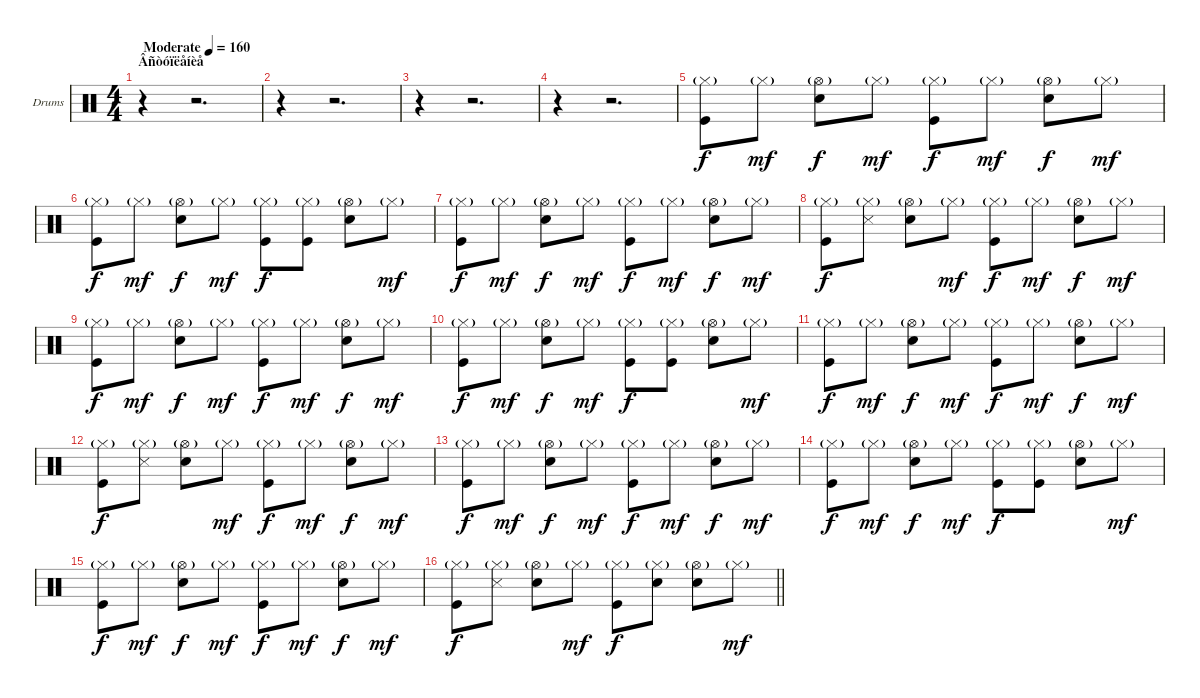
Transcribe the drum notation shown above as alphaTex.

\bracketExtendMode groupsimilarinstruments
\firstSystemTrackNameOrientation horizontal
\otherSystemsTrackNameOrientation horizontal
\track ("Гурьянов" "Drums") {instrument percussion}
\staff {score}
\articulation defaults
\ts (4 4)
\beaming (8 2 2 2 2)
\section ("" "Âñòóïëåíèå")
\tempo (160 "Moderate")
\clef neutral
\scale
0.474178
\ks c
r.4{dy f} r.2{d} |
\scale
0.262911 r.4 r.2{d} |
\scale
0.262911 r.4 r.2{d} |
\scale
0.333333 r.4 r.2{d} |
\scale
0.333333 ("Hi-Hat (closed)"{g} "Kick (hit)").8 "Hi-Hat (closed)"{g}.8{dy mf} ("Hi-Hat (open)"{g} "Snare (hit) 2").8{dy f} "Hi-Hat (closed)"{g}.8{dy mf} ("Hi-Hat (closed)"{g} "Kick (hit)").8{dy f} "Hi-Hat (closed)"{g}.8{dy mf} ("Hi-Hat (open)"{g} "Snare (hit) 2").8{dy f} "Hi-Hat (closed)"{g}.8{dy mf} |
\scale
0.333333 ("Hi-Hat (closed)"{g} "Kick (hit)").8{dy f} "Hi-Hat (closed)"{g}.8{dy mf} ("Hi-Hat (open)"{g} "Snare (hit) 2").8{dy f} "Hi-Hat (closed)"{g}.8{dy mf} ("Hi-Hat (closed)"{g} "Kick (hit)").8{dy f} ("Hi-Hat (closed)"{g} "Kick (hit)").8 ("Hi-Hat (open)"{g} "Snare (hit) 2").8 "Hi-Hat (closed)"{g}.8{dy mf} |
\scale
0.333333 ("Hi-Hat (closed)"{g} "Kick (hit)").8{dy f} "Hi-Hat (closed)"{g}.8{dy mf} ("Hi-Hat (open)"{g} "Snare (hit) 2").8{dy f} "Hi-Hat (closed)"{g}.8{dy mf} ("Hi-Hat (closed)"{g} "Kick (hit)").8{dy f} "Hi-Hat (closed)"{g}.8{dy mf} ("Hi-Hat (open)"{g} "Snare (hit) 2").8{dy f} "Hi-Hat (closed)"{g}.8{dy mf} |
\scale
0.333333 ("Hi-Hat (closed)"{g} "Kick (hit)").8{dy f} ("Hi-Hat (closed)"{g} "Snare (side stick) 3").8 ("Hi-Hat (open)"{g} "Snare (hit) 2").8 "Hi-Hat (closed)"{g}.8{dy mf} ("Hi-Hat (closed)"{g} "Kick (hit)").8{dy f} "Hi-Hat (closed)"{g}.8{dy mf} ("Hi-Hat (open)"{g} "Snare (hit) 2").8{dy f} "Hi-Hat (closed)"{g}.8{dy mf} |
\scale
0.333333 ("Hi-Hat (closed)"{g} "Kick (hit)").8{dy f} "Hi-Hat (closed)"{g}.8{dy mf} ("Hi-Hat (open)"{g} "Snare (hit) 2").8{dy f} "Hi-Hat (closed)"{g}.8{dy mf} ("Hi-Hat (closed)"{g} "Kick (hit)").8{dy f} "Hi-Hat (closed)"{g}.8{dy mf} ("Hi-Hat (open)"{g} "Snare (hit) 2").8{dy f} "Hi-Hat (closed)"{g}.8{dy mf} |
\scale
0.333333 ("Hi-Hat (closed)"{g} "Kick (hit)").8{dy f} "Hi-Hat (closed)"{g}.8{dy mf} ("Hi-Hat (open)"{g} "Snare (hit) 2").8{dy f} "Hi-Hat (closed)"{g}.8{dy mf} ("Hi-Hat (closed)"{g} "Kick (hit)").8{dy f} ("Hi-Hat (closed)"{g} "Kick (hit)").8 ("Hi-Hat (open)"{g} "Snare (hit) 2").8 "Hi-Hat (closed)"{g}.8{dy mf} |
\scale
0.333333 ("Hi-Hat (closed)"{g} "Kick (hit)").8{dy f} "Hi-Hat (closed)"{g}.8{dy mf} ("Hi-Hat (open)"{g} "Snare (hit) 2").8{dy f} "Hi-Hat (closed)"{g}.8{dy mf} ("Hi-Hat (closed)"{g} "Kick (hit)").8{dy f} "Hi-Hat (closed)"{g}.8{dy mf} ("Hi-Hat (open)"{g} "Snare (hit) 2").8{dy f} "Hi-Hat (closed)"{g}.8{dy mf} |
\scale
0.333333 ("Hi-Hat (closed)"{g} "Kick (hit)").8{dy f} ("Hi-Hat (closed)"{g} "Snare (side stick) 3").8 ("Hi-Hat (open)"{g} "Snare (hit) 2").8 "Hi-Hat (closed)"{g}.8{dy mf} ("Hi-Hat (closed)"{g} "Kick (hit)").8{dy f} "Hi-Hat (closed)"{g}.8{dy mf} ("Hi-Hat (open)"{g} "Snare (hit) 2").8{dy f} "Hi-Hat (closed)"{g}.8{dy mf} |
\scale
0.333333 ("Hi-Hat (closed)"{g} "Kick (hit)").8{dy f} "Hi-Hat (closed)"{g}.8{dy mf} ("Hi-Hat (open)"{g} "Snare (hit) 2").8{dy f} "Hi-Hat (closed)"{g}.8{dy mf} ("Hi-Hat (closed)"{g} "Kick (hit)").8{dy f} "Hi-Hat (closed)"{g}.8{dy mf} ("Hi-Hat (open)"{g} "Snare (hit) 2").8{dy f} "Hi-Hat (closed)"{g}.8{dy mf} |
\scale
0.333333 ("Hi-Hat (closed)"{g} "Kick (hit)").8{dy f} "Hi-Hat (closed)"{g}.8{dy mf} ("Hi-Hat (open)"{g} "Snare (hit) 2").8{dy f} "Hi-Hat (closed)"{g}.8{dy mf} ("Hi-Hat (closed)"{g} "Kick (hit)").8{dy f} ("Hi-Hat (closed)"{g} "Kick (hit)").8 ("Hi-Hat (open)"{g} "Snare (hit) 2").8 "Hi-Hat (closed)"{g}.8{dy mf} |
\scale
0.333333 ("Hi-Hat (closed)"{g} "Kick (hit)").8{dy f} "Hi-Hat (closed)"{g}.8{dy mf} ("Hi-Hat (open)"{g} "Snare (hit) 2").8{dy f} "Hi-Hat (closed)"{g}.8{dy mf} ("Hi-Hat (closed)"{g} "Kick (hit)").8{dy f} "Hi-Hat (closed)"{g}.8{dy mf} ("Hi-Hat (open)"{g} "Snare (hit) 2").8{dy f} "Hi-Hat (closed)"{g}.8{dy mf} |
\scale
0.333333
\barLineRight lightlight
("Hi-Hat (closed)"{g} "Kick (hit)").8{dy f} ("Hi-Hat (closed)"{g} "Snare (side stick) 3").8 ("Hi-Hat (open)"{g} "Snare (hit) 2").8 "Hi-Hat (closed)"{g}.8{dy mf} ("Hi-Hat (closed)"{g} "Kick (hit)").8{dy f} ("Hi-Hat (closed)"{g} "Snare (hit) 2").8 ("Hi-Hat (open)"{g} "Snare (hit) 2").8 "Hi-Hat (closed)"{g}.8{dy mf}
